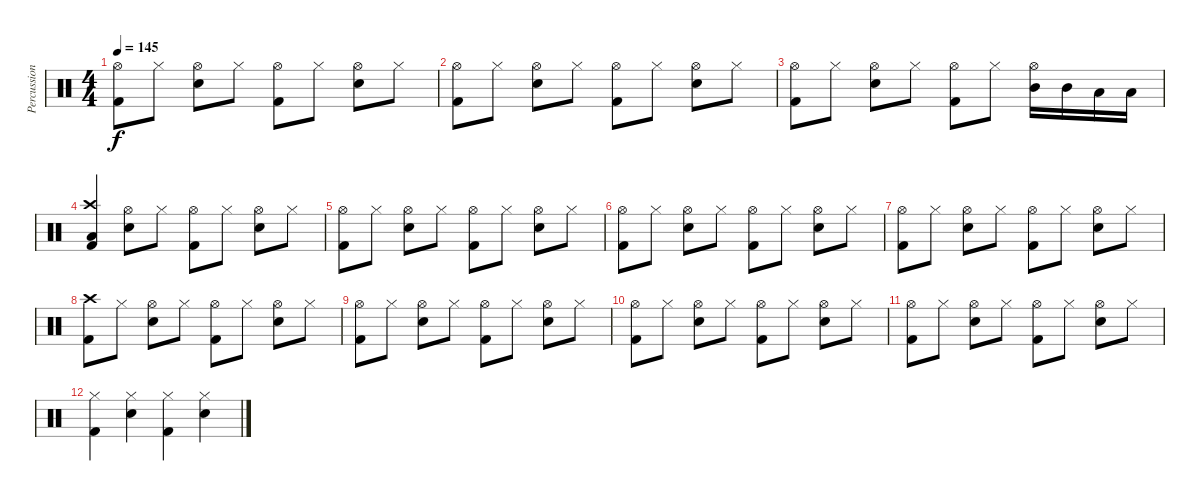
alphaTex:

\track ("Percussion" "Percussion") {instrument percussion bank 1}
\staff {score}
\articulation defaults
\ts (4 4)
\tempo 145
\clef neutral
\ks c
("Kick (hit) 2" "Hi-Hat (open)").8{dy f} "Hi-Hat (closed)".8 ("Electric Snare (hit)" "Hi-Hat (open)").8 "Hi-Hat (closed)".8 ("Kick (hit) 2" "Hi-Hat (open)").8 "Hi-Hat (closed)".8 ("Electric Snare (hit)" "Hi-Hat (open)").8 "Hi-Hat (closed)".8 |
("Kick (hit) 2" "Hi-Hat (open)").8 "Hi-Hat (closed)".8 ("Electric Snare (hit)" "Hi-Hat (open)").8 "Hi-Hat (closed)".8 ("Kick (hit) 2" "Hi-Hat (open)").8 "Hi-Hat (closed)".8 ("Electric Snare (hit)" "Hi-Hat (open)").8 "Hi-Hat (closed)".8 |
("Kick (hit) 2" "Hi-Hat (open)").8 "Hi-Hat (closed)".8 ("Electric Snare (hit)" "Hi-Hat (open)").8 "Hi-Hat (closed)".8 ("Kick (hit) 2" "Hi-Hat (open)").8 "Hi-Hat (closed)".8 ("Mid Tom (hit)" "Hi-Hat (open)").16 "Mid Tom (hit)".16 "Low Tom (hit)".16 "Low Tom (hit)".16 |
("Crash high (hit)" "Low Floor Tom (hit)" "Kick (hit) 2").4 ("Electric Snare (hit)" "Hi-Hat (open)").8 "Hi-Hat (closed)".8 ("Kick (hit) 2" "Hi-Hat (open)").8 "Hi-Hat (closed)".8 ("Electric Snare (hit)" "Hi-Hat (open)").8 "Hi-Hat (closed)".8 |
("Kick (hit) 2" "Hi-Hat (open)").8 "Hi-Hat (closed)".8 ("Electric Snare (hit)" "Hi-Hat (open)").8 "Hi-Hat (closed)".8 ("Kick (hit) 2" "Hi-Hat (open)").8 "Hi-Hat (closed)".8 ("Electric Snare (hit)" "Hi-Hat (open)").8 "Hi-Hat (closed)".8 |
("Kick (hit) 2" "Hi-Hat (open)").8 "Hi-Hat (closed)".8 ("Electric Snare (hit)" "Hi-Hat (open)").8 "Hi-Hat (closed)".8 ("Kick (hit) 2" "Hi-Hat (open)").8 "Hi-Hat (closed)".8 ("Electric Snare (hit)" "Hi-Hat (open)").8 "Hi-Hat (closed)".8 |
("Kick (hit) 2" "Hi-Hat (open)").8 "Hi-Hat (closed)".8 ("Electric Snare (hit)" "Hi-Hat (open)").8 "Hi-Hat (closed)".8 ("Kick (hit) 2" "Hi-Hat (open)").8 "Hi-Hat (closed)".8 ("Electric Snare (hit)" "Hi-Hat (open)").8 "Hi-Hat (closed)".8 |
("Kick (hit) 2" "Crash high (hit)").8 "Hi-Hat (closed)".8 ("Electric Snare (hit)" "Hi-Hat (open)").8 "Hi-Hat (closed)".8 ("Kick (hit) 2" "Hi-Hat (open)").8 "Hi-Hat (closed)".8 ("Electric Snare (hit)" "Hi-Hat (open)").8 "Hi-Hat (closed)".8 |
("Kick (hit) 2" "Hi-Hat (open)").8 "Hi-Hat (closed)".8 ("Electric Snare (hit)" "Hi-Hat (open)").8 "Hi-Hat (closed)".8 ("Kick (hit) 2" "Hi-Hat (open)").8 "Hi-Hat (closed)".8 ("Electric Snare (hit)" "Hi-Hat (open)").8 "Hi-Hat (closed)".8 |
("Kick (hit) 2" "Hi-Hat (open)").8 "Hi-Hat (closed)".8 ("Electric Snare (hit)" "Hi-Hat (open)").8 "Hi-Hat (closed)".8 ("Kick (hit) 2" "Hi-Hat (open)").8 "Hi-Hat (closed)".8 ("Electric Snare (hit)" "Hi-Hat (open)").8 "Hi-Hat (closed)".8 |
("Kick (hit) 2" "Hi-Hat (open)").8 "Hi-Hat (closed)".8 ("Electric Snare (hit)" "Hi-Hat (open)").8 "Hi-Hat (closed)".8 ("Kick (hit) 2" "Hi-Hat (open)").8 "Hi-Hat (closed)".8 ("Electric Snare (hit)" "Hi-Hat (open)").8 "Hi-Hat (closed)".8 |
("Kick (hit) 2" "Hi-Hat (closed)").4 ("Electric Snare (hit)" "Hi-Hat (closed)").4 ("Kick (hit) 2" "Hi-Hat (closed)").4 ("Electric Snare (hit)" "Hi-Hat (closed)").4
